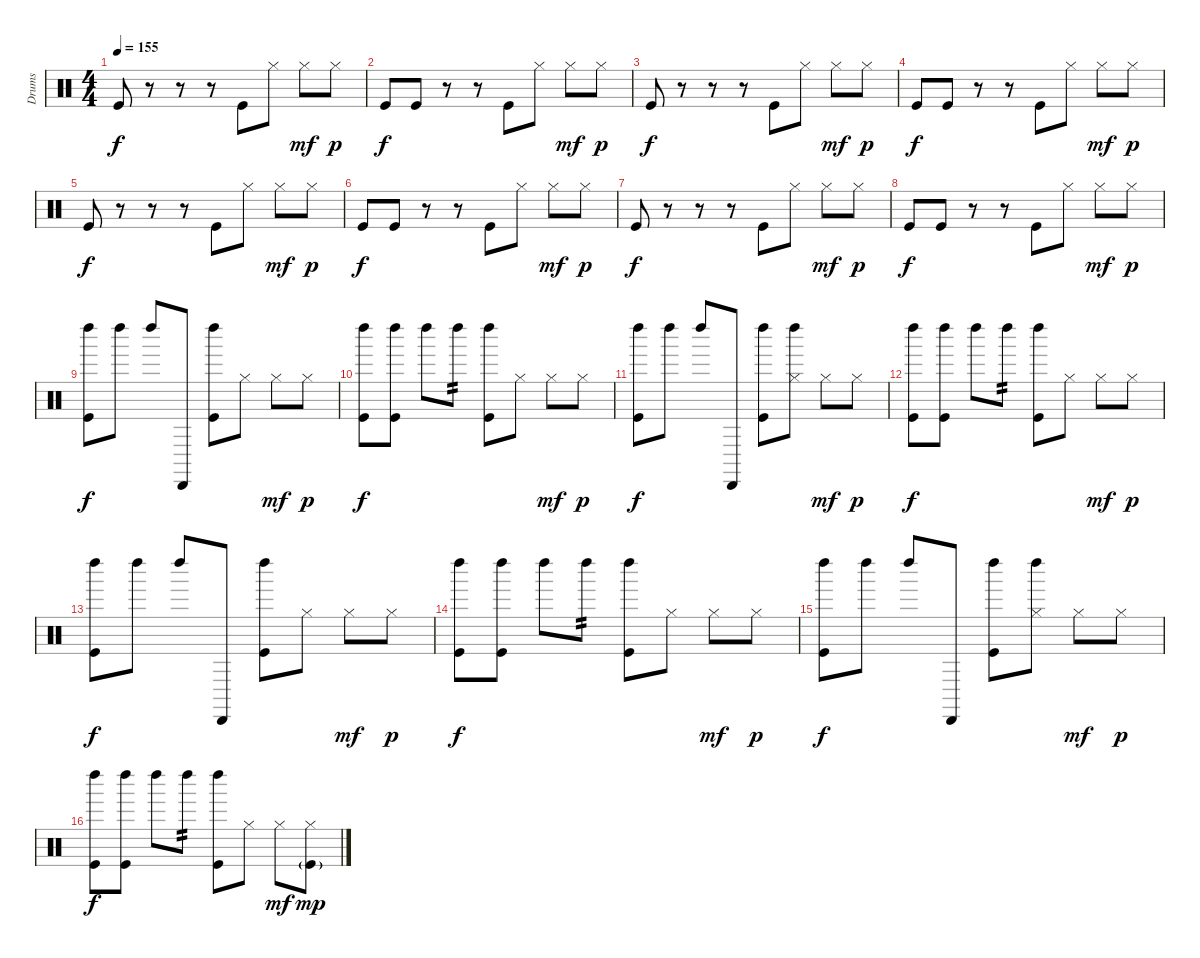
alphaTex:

\track ("Drums" "Drums") {instrument percussion}
\staff {score}
\articulation defaults
\ts (4 4)
\tempo 155
\clef neutral
\ks c "Kick (hit)".8{dy f}
r.8 r.8 r.8 "Kick (hit)".8 "Hi-Hat (closed)".8 "Hi-Hat (closed)".8{dy mf} "Hi-Hat (closed)".8{dy p} |
"Kick (hit)".8{dy f} "Kick (hit)".8 r.8 r.8 "Kick (hit)".8 "Hi-Hat (closed)".8 "Hi-Hat (closed)".8{dy mf} "Hi-Hat (closed)".8{dy p} |
"Kick (hit)".8{dy f} r.8 r.8 r.8 "Kick (hit)".8 "Hi-Hat (closed)".8 "Hi-Hat (closed)".8{dy mf} "Hi-Hat (closed)".8{dy p} |
"Kick (hit)".8{dy f} "Kick (hit)".8 r.8 r.8 "Kick (hit)".8 "Hi-Hat (closed)".8 "Hi-Hat (closed)".8{dy mf} "Hi-Hat (closed)".8{dy p} |
"Kick (hit)".8{dy f} r.8 r.8 r.8 "Kick (hit)".8 "Hi-Hat (closed)".8 "Hi-Hat (closed)".8{dy mf} "Hi-Hat (closed)".8{dy p} |
"Kick (hit)".8{dy f} "Kick (hit)".8 r.8 r.8 "Kick (hit)".8 "Hi-Hat (closed)".8 "Hi-Hat (closed)".8{dy mf} "Hi-Hat (closed)".8{dy p} |
"Kick (hit)".8{dy f} r.8 r.8 r.8 "Kick (hit)".8 "Hi-Hat (closed)".8 "Hi-Hat (closed)".8{dy mf} "Hi-Hat (closed)".8{dy p} |
"Kick (hit)".8{dy f} "Kick (hit)".8 r.8 r.8 "Kick (hit)".8 "Hi-Hat (closed)".8 "Hi-Hat (closed)".8{dy mf} "Hi-Hat (closed)".8{dy p} |
("Kick (hit)" "Left Maraca (hit)").8{dy f} "Left Maraca (hit)".8 "Left Maraca (hit)".8 "Cabasa (hit)".8 ("Kick (hit)" "Left Maraca (hit)").8 "Hi-Hat (closed)".8 "Hi-Hat (closed)".8{dy mf} "Hi-Hat (closed)".8{dy p} |
("Kick (hit)" "Left Maraca (hit)").8{dy f} ("Kick (hit)" "Left Maraca (hit)").8 "Left Maraca (hit)".8 "Left Maraca (hit)".8{tp 2} ("Kick (hit)" "Left Maraca (hit)").8 "Hi-Hat (closed)".8 "Hi-Hat (closed)".8{dy mf} "Hi-Hat (closed)".8{dy p} |
("Kick (hit)" "Left Maraca (hit)").8{dy f} "Left Maraca (hit)".8 "Left Maraca (hit)".8 "Cabasa (hit)".8 ("Kick (hit)" "Left Maraca (hit)").8 ("Hi-Hat (closed)" "Left Maraca (hit)").8 "Hi-Hat (closed)".8{dy mf} "Hi-Hat (closed)".8{dy p} |
("Kick (hit)" "Left Maraca (hit)").8{dy f} ("Kick (hit)" "Left Maraca (hit)").8 "Left Maraca (hit)".8 "Left Maraca (hit)".8{tp 2} ("Kick (hit)" "Left Maraca (hit)").8 "Hi-Hat (closed)".8 "Hi-Hat (closed)".8{dy mf} "Hi-Hat (closed)".8{dy p} |
("Kick (hit)" "Left Maraca (hit)").8{dy f} "Left Maraca (hit)".8 "Left Maraca (hit)".8 "Cabasa (hit)".8 ("Kick (hit)" "Left Maraca (hit)").8 "Hi-Hat (closed)".8 "Hi-Hat (closed)".8{dy mf} "Hi-Hat (closed)".8{dy p} |
("Kick (hit)" "Left Maraca (hit)").8{dy f} ("Kick (hit)" "Left Maraca (hit)").8 "Left Maraca (hit)".8 "Left Maraca (hit)".8{tp 2} ("Kick (hit)" "Left Maraca (hit)").8 "Hi-Hat (closed)".8 "Hi-Hat (closed)".8{dy mf} "Hi-Hat (closed)".8{dy p} |
("Kick (hit)" "Left Maraca (hit)").8{dy f} "Left Maraca (hit)".8 "Left Maraca (hit)".8 "Cabasa (hit)".8 ("Kick (hit)" "Left Maraca (hit)").8 ("Hi-Hat (closed)" "Left Maraca (hit)").8 "Hi-Hat (closed)".8{dy mf} "Hi-Hat (closed)".8{dy p} |
("Kick (hit)" "Left Maraca (hit)").8{dy f} ("Kick (hit)" "Left Maraca (hit)").8 "Left Maraca (hit)".8 "Left Maraca (hit)".8{tp 2} ("Kick (hit)" "Left Maraca (hit)").8 "Hi-Hat (closed)".8 "Hi-Hat (closed)".8{dy mf} ("Hi-Hat (closed)" "Kick (hit)"{g}).8{dy mp}
